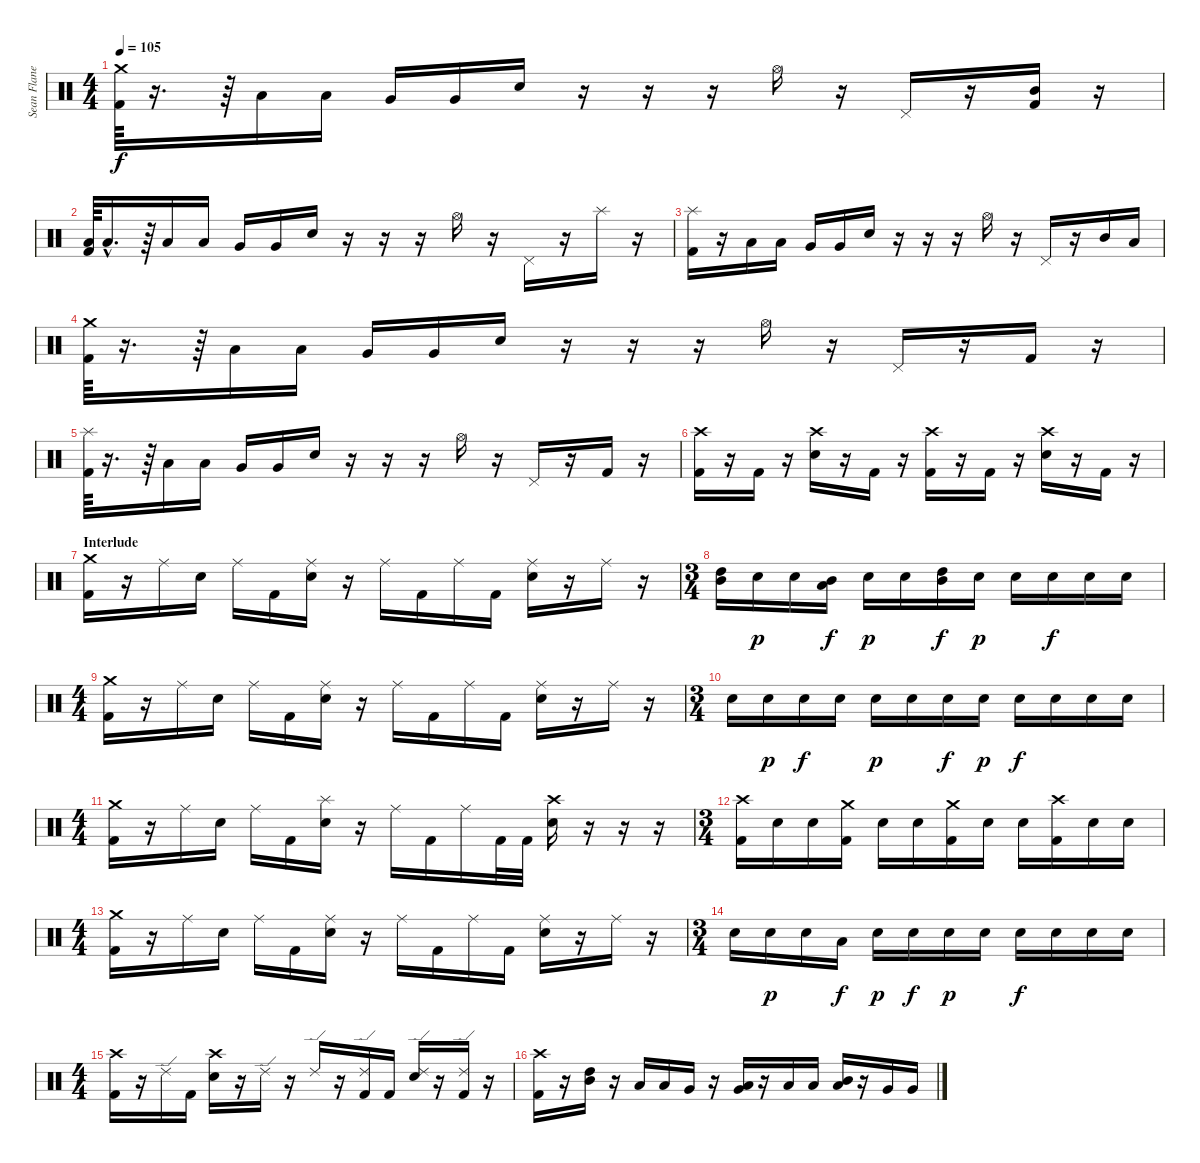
\track ("Sean Flanegan [Drums]" "Sean Flane") {instrument percussion}
\staff {score}
\articulation defaults
\ts (4 4)
\tempo 105
\clef neutral
\ks c
("Crash medium (hit)" "Kick (hit) 2").64{dy f} r.16{d} r.64 "Low Tom (hit)".16 "Low Tom (hit)".16 "Very Low Tom (hit)".16 "Very Low Tom (hit)".16 "Electric Snare (hit)".16 r.16 r.16 r.16 "Hi-Hat (open)".16 r.16 "Pedal Hi-Hat (hit)".16 r.16 ("Mid Tom (hit)" "Kick (hit) 2").16 r.16 |
("Low Tom (hit)" "Kick (hit) 2").64 "Low Tom (hit)"{hac}.16{d} r.64 "Low Tom (hit)".16 "Low Tom (hit)".16 "Very Low Tom (hit)".16 "Very Low Tom (hit)".16 "Electric Snare (hit)".16 r.16 r.16 r.16 "Hi-Hat (open)".16 r.16 "Pedal Hi-Hat (hit)".16 r.16 "Splash (hit)".16 r.16 |
("Splash (hit)" "Kick (hit) 2").16 r.16 "Low Tom (hit)".16 "Low Tom (hit)".16 "Very Low Tom (hit)".16 "Very Low Tom (hit)".16 "Electric Snare (hit)".16 r.16 r.16 r.16 "Hi-Hat (open)".16 r.16 "Pedal Hi-Hat (hit)".16 r.16 "Mid Tom (hit)".16 "Low Tom (hit)".16 |
("Crash medium (hit)" "Kick (hit) 2").64 r.16{d} r.64 "Low Tom (hit)".16 "Low Tom (hit)".16 "Very Low Tom (hit)".16 "Very Low Tom (hit)".16 "Electric Snare (hit)".16 r.16 r.16 r.16 "Hi-Hat (open)".16 r.16 "Pedal Hi-Hat (hit)".16 r.16 "Kick (hit) 2".16 r.16 |
("Splash (hit)" "Kick (hit) 2").64 r.16{d} r.64 "Low Tom (hit)".16 "Low Tom (hit)".16 "Very Low Tom (hit)".16 "Very Low Tom (hit)".16 "Electric Snare (hit)".16 r.16 r.16 r.16 "Hi-Hat (open)".16 r.16 "Pedal Hi-Hat (hit)".16 r.16 "Kick (hit) 2".16 r.16 |
("Crash high (hit)" "Kick (hit) 2").16 r.16 "Kick (hit) 2".16 r.16 ("Crash high (hit)" "Electric Snare (hit)").16 r.16 "Kick (hit) 2".16 r.16 ("Crash high (hit)" "Kick (hit) 2").16 r.16 "Kick (hit) 2".16 r.16 ("Crash high (hit)" "Electric Snare (hit)").16 r.16 "Kick (hit) 2".16 r.16 |
\section ("" "Interlude")
("Crash medium (hit)" "Kick (hit) 2").16 r.16 "Ride (middle)".16 "Electric Snare (hit)".16 "Ride (middle)".16 "Kick (hit) 2".16 ("Ride (middle)" "Electric Snare (hit)").16 r.16 "Ride (middle)".16 "Kick (hit) 2".16 "Ride (middle)".16 "Kick (hit) 2".16 ("Ride (middle)" "Electric Snare (hit)").16 r.16 "Ride (middle)".16 r.16 |
\ts (3 4)
("High Tom (hit)" "Mid Tom (hit)").16 "Electric Snare (hit)".16{dy p} "Electric Snare (hit)".16 ("Mid Tom (hit)" "Low Tom (hit)").16{dy f} "Electric Snare (hit)".16{dy p} "Electric Snare (hit)".16 ("High Tom (hit)" "Mid Tom (hit)").16{dy f} "Electric Snare (hit)".16{dy p} "Electric Snare (hit)".16 "Electric Snare (hit)".16{dy f} "Electric Snare (hit)".16 "Electric Snare (hit)".16 |
\ts (4 4)
("Crash medium (hit)" "Kick (hit) 2").16 r.16 "Ride (middle)".16 "Electric Snare (hit)".16 "Ride (middle)".16 "Kick (hit) 2".16 ("Ride (middle)" "Electric Snare (hit)").16 r.16 "Ride (middle)".16 "Kick (hit) 2".16 "Ride (middle)".16 "Kick (hit) 2".16 ("Ride (middle)" "Electric Snare (hit)").16 r.16 "Ride (middle)".16 r.16 |
\ts (3 4)
"Electric Snare (hit)".16 "Electric Snare (hit)".16{dy p} "Electric Snare (hit)".16{dy f} "Electric Snare (hit)".16 "Electric Snare (hit)".16{dy p} "Electric Snare (hit)".16 "Electric Snare (hit)".16{dy f} "Electric Snare (hit)".16{dy p} "Electric Snare (hit)".16{dy f} "Electric Snare (hit)".16 "Electric Snare (hit)".16 "Electric Snare (hit)".16 |
\ts (4 4)
("Crash medium (hit)" "Kick (hit) 2").16 r.16 "Ride (middle)".16 "Electric Snare (hit)".16 "Ride (middle)".16 "Kick (hit) 2".16 ("Splash (hit)" "Electric Snare (hit)").16 r.16 "Ride (middle)".16 "Kick (hit) 2".16 "Ride (middle)".16 "Kick (hit) 2".32 "Kick (hit) 2".32 ("Crash high (hit)" "Electric Snare (hit)").16 r.16 r.16 r.16 |
\ts (3 4)
("Crash high (hit)" "Kick (hit) 2").16 "Electric Snare (hit)".16 "Electric Snare (hit)".16 ("Crash medium (hit)" "Kick (hit) 2").16 "Electric Snare (hit)".16 "Electric Snare (hit)".16 ("Crash medium (hit)" "Kick (hit) 2").16 "Electric Snare (hit)".16 "Electric Snare (hit)".16 ("Crash high (hit)" "Kick (hit) 2").16 "Electric Snare (hit)".16 "Electric Snare (hit)".16 |
\ts (4 4)
("Crash medium (hit)" "Kick (hit) 2").16 r.16 "Ride (middle)".16 "Electric Snare (hit)".16 "Ride (middle)".16 "Kick (hit) 2".16 ("Ride (middle)" "Electric Snare (hit)").16 r.16 "Ride (middle)".16 "Kick (hit) 2".16 "Ride (middle)".16 "Kick (hit) 2".16 ("Ride (middle)" "Electric Snare (hit)").16 r.16 "Ride (middle)".16 r.16 |
\ts (3 4)
"Electric Snare (hit)".16 "Electric Snare (hit)".16{dy p} "Electric Snare (hit)".16 "Low Tom (hit)".16{dy f} "Electric Snare (hit)".16{dy p} "Electric Snare (hit)".16{dy f} "Electric Snare (hit)".16{dy p} "Electric Snare (hit)".16 "Electric Snare (hit)".16{dy f} "Electric Snare (hit)".16 "Electric Snare (hit)".16 "Electric Snare (hit)".16 |
\ts (4 4)
("Crash high (hit)" "Kick (hit) 2").16 r.16 "Ride (edge) 2".16 "Kick (hit) 2".16 ("Crash high (hit)" "Electric Snare (hit)").16 r.16 "Ride (edge) 2".16 r.16 "Ride (edge) 2".16 r.16 ("Ride (edge) 2" "Kick (hit) 2").16 "Kick (hit) 2".16 ("Ride (edge) 2" "Electric Snare (hit)").16 r.16 ("Ride (edge) 2" "Kick (hit) 2").16 r.16 |
("Crash high (hit)" "Kick (hit) 2").16 r.16 ("High Tom (hit)" "Mid Tom (hit)").16 r.16 "Low Tom (hit)".16 "Low Tom (hit)".16 "Very Low Tom (hit)".16 r.16 ("Low Tom (hit)" "Very Low Tom (hit)").16 r.16 "Low Tom (hit)".16 "Low Tom (hit)".16 ("Mid Tom (hit)" "Low Tom (hit)").16 r.16 "Very Low Tom (hit)".16 "Very Low Tom (hit)".16
